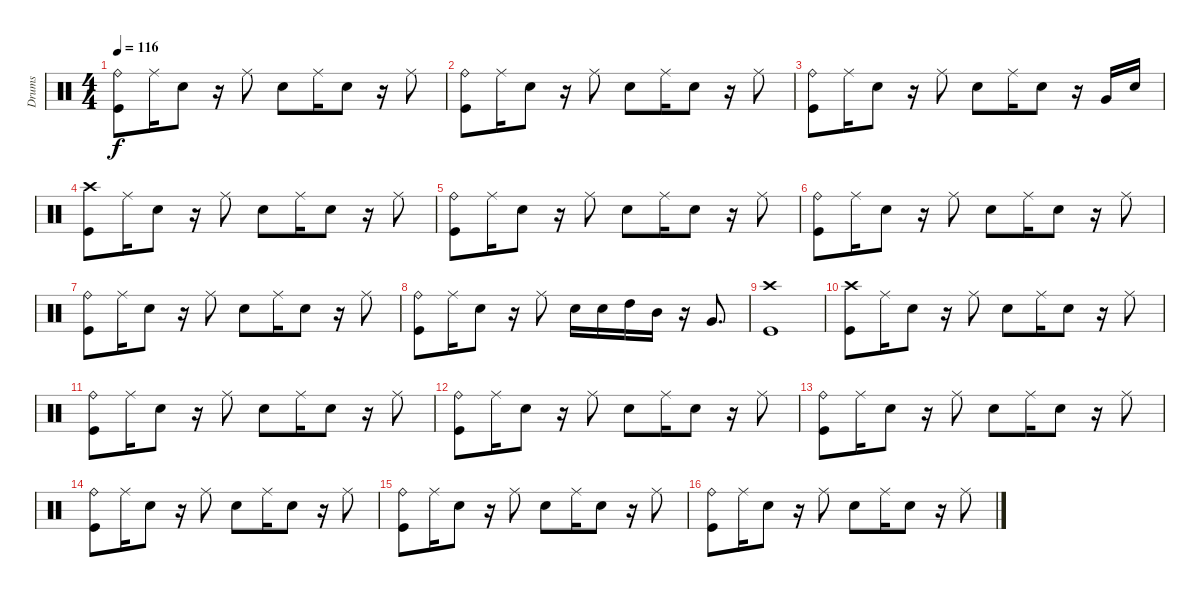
\track ("Drums" "Drums") {instrument percussion}
\staff {score}
\articulation defaults
\ts (4 4)
\tempo 116
\clef neutral
\ks c
("Ride (bell)" "Kick (hit)").8{dy f} "Ride (middle)".16 "Snare (hit) 2".8 r.16 "Ride (middle)".8 "Snare (hit) 2".8 "Ride (middle)".16 "Snare (hit) 2".8 r.16 "Ride (middle)".8 |
("Ride (bell)" "Kick (hit)").8 "Ride (middle)".16 "Snare (hit) 2".8 r.16 "Ride (middle)".8 "Snare (hit) 2".8 "Ride (middle)".16 "Snare (hit) 2".8 r.16 "Ride (middle)".8 |
("Ride (bell)" "Kick (hit)").8 "Ride (middle)".16 "Snare (hit) 2".8 r.16 "Ride (middle)".8 "Snare (hit) 2".8 "Ride (middle)".16 "Snare (hit) 2".8 r.16 "Very Low Tom (hit)".16 "Snare (hit) 2".16 |
("Crash high (hit)" "Kick (hit)").8 "Ride (middle)".16 "Snare (hit) 2".8 r.16 "Ride (middle)".8 "Snare (hit) 2".8 "Ride (middle)".16 "Snare (hit) 2".8 r.16 "Ride (middle)".8 |
("Ride (bell)" "Kick (hit)").8 "Ride (middle)".16 "Snare (hit) 2".8 r.16 "Ride (middle)".8 "Snare (hit) 2".8 "Ride (middle)".16 "Snare (hit) 2".8 r.16 "Ride (middle)".8 |
("Ride (bell)" "Kick (hit)").8 "Ride (middle)".16 "Snare (hit) 2".8 r.16 "Ride (middle)".8 "Snare (hit) 2".8 "Ride (middle)".16 "Snare (hit) 2".8 r.16 "Ride (middle)".8 |
("Ride (bell)" "Kick (hit)").8 "Ride (middle)".16 "Snare (hit) 2".8 r.16 "Ride (middle)".8 "Snare (hit) 2".8 "Ride (middle)".16 "Snare (hit) 2".8 r.16 "Ride (middle)".8 |
("Ride (bell)" "Kick (hit)").8 "Ride (middle)".16 "Snare (hit) 2".8 r.16 "Ride (middle)".8 "Snare (hit) 2".16 "Snare (hit) 2".16 "High Tom (hit)".16 "Mid Tom (hit)".16 r.16 "Very Low Tom (hit)".8{d} |
("Crash high (hit)" "Kick (hit)").1 |
("Crash high (hit)" "Kick (hit)").8 "Ride (middle)".16 "Snare (hit) 2".8 r.16 "Ride (middle)".8 "Snare (hit) 2".8 "Ride (middle)".16 "Snare (hit) 2".8 r.16 "Ride (middle)".8 |
("Ride (bell)" "Kick (hit)").8 "Ride (middle)".16 "Snare (hit) 2".8 r.16 "Ride (middle)".8 "Snare (hit) 2".8 "Ride (middle)".16 "Snare (hit) 2".8 r.16 "Ride (middle)".8 |
("Ride (bell)" "Kick (hit)").8 "Ride (middle)".16 "Snare (hit) 2".8 r.16 "Ride (middle)".8 "Snare (hit) 2".8 "Ride (middle)".16 "Snare (hit) 2".8 r.16 "Ride (middle)".8 |
("Ride (bell)" "Kick (hit)").8 "Ride (middle)".16 "Snare (hit) 2".8 r.16 "Ride (middle)".8 "Snare (hit) 2".8 "Ride (middle)".16 "Snare (hit) 2".8 r.16 "Ride (middle)".8 |
("Ride (bell)" "Kick (hit)").8 "Ride (middle)".16 "Snare (hit) 2".8 r.16 "Ride (middle)".8 "Snare (hit) 2".8 "Ride (middle)".16 "Snare (hit) 2".8 r.16 "Ride (middle)".8 |
("Ride (bell)" "Kick (hit)").8 "Ride (middle)".16 "Snare (hit) 2".8 r.16 "Ride (middle)".8 "Snare (hit) 2".8 "Ride (middle)".16 "Snare (hit) 2".8 r.16 "Ride (middle)".8 |
("Ride (bell)" "Kick (hit)").8 "Ride (middle)".16 "Snare (hit) 2".8 r.16 "Ride (middle)".8 "Snare (hit) 2".8 "Ride (middle)".16 "Snare (hit) 2".8 r.16 "Ride (middle)".8
